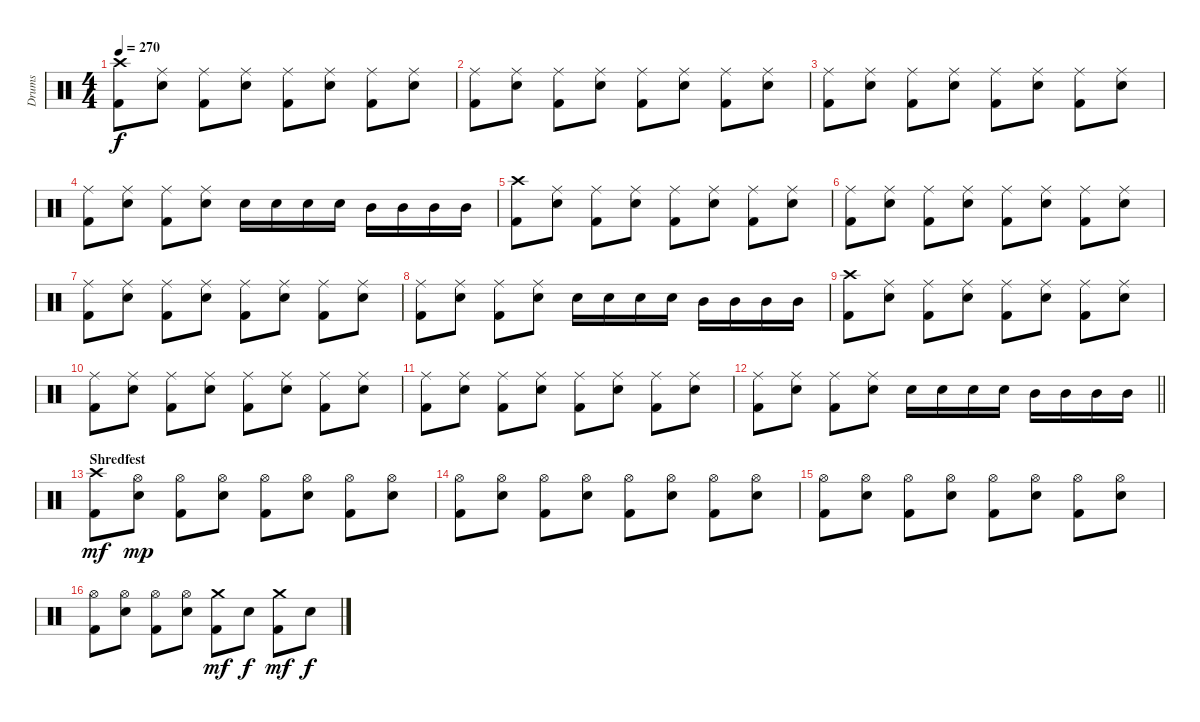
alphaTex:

\track ("Drums" "Drums") {instrument percussion}
\staff {score}
\articulation defaults
\ts (4 4)
\tempo 270
\clef neutral
\ks c
("Crash high (hit)" "Kick (hit) 2").8{dy f} ("Ride (middle)" "Snare (hit) 2").8 ("Ride (middle)" "Kick (hit) 2").8 ("Ride (middle)" "Snare (hit) 2").8 ("Ride (middle)" "Kick (hit) 2").8 ("Ride (middle)" "Snare (hit) 2").8 ("Ride (middle)" "Kick (hit) 2").8 ("Ride (middle)" "Snare (hit) 2").8 |
("Ride (middle)" "Kick (hit) 2").8 ("Ride (middle)" "Snare (hit) 2").8 ("Ride (middle)" "Kick (hit) 2").8 ("Ride (middle)" "Snare (hit) 2").8 ("Ride (middle)" "Kick (hit) 2").8 ("Ride (middle)" "Snare (hit) 2").8 ("Ride (middle)" "Kick (hit) 2").8 ("Ride (middle)" "Snare (hit) 2").8 |
("Ride (middle)" "Kick (hit) 2").8 ("Ride (middle)" "Snare (hit) 2").8 ("Ride (middle)" "Kick (hit) 2").8 ("Ride (middle)" "Snare (hit) 2").8 ("Ride (middle)" "Kick (hit) 2").8 ("Ride (middle)" "Snare (hit) 2").8 ("Ride (middle)" "Kick (hit) 2").8 ("Ride (middle)" "Snare (hit) 2").8 |
("Ride (middle)" "Kick (hit) 2").8 ("Ride (middle)" "Snare (hit) 2").8 ("Ride (middle)" "Kick (hit) 2").8 ("Ride (middle)" "Snare (hit) 2").8 "Snare (hit) 2".16 "Snare (hit) 2".16 "Snare (hit) 2".16 "Snare (hit) 2".16 "Mid Tom (hit)".16 "Mid Tom (hit)".16 "Mid Tom (hit)".16 "Mid Tom (hit)".16 |
("Crash high (hit)" "Kick (hit) 2").8 ("Ride (middle)" "Snare (hit) 2").8 ("Ride (middle)" "Kick (hit) 2").8 ("Ride (middle)" "Snare (hit) 2").8 ("Ride (middle)" "Kick (hit) 2").8 ("Ride (middle)" "Snare (hit) 2").8 ("Ride (middle)" "Kick (hit) 2").8 ("Ride (middle)" "Snare (hit) 2").8 |
("Ride (middle)" "Kick (hit) 2").8 ("Ride (middle)" "Snare (hit) 2").8 ("Ride (middle)" "Kick (hit) 2").8 ("Ride (middle)" "Snare (hit) 2").8 ("Ride (middle)" "Kick (hit) 2").8 ("Ride (middle)" "Snare (hit) 2").8 ("Ride (middle)" "Kick (hit) 2").8 ("Ride (middle)" "Snare (hit) 2").8 |
("Ride (middle)" "Kick (hit) 2").8 ("Ride (middle)" "Snare (hit) 2").8 ("Ride (middle)" "Kick (hit) 2").8 ("Ride (middle)" "Snare (hit) 2").8 ("Ride (middle)" "Kick (hit) 2").8 ("Ride (middle)" "Snare (hit) 2").8 ("Ride (middle)" "Kick (hit) 2").8 ("Ride (middle)" "Snare (hit) 2").8 |
("Ride (middle)" "Kick (hit) 2").8 ("Ride (middle)" "Snare (hit) 2").8 ("Ride (middle)" "Kick (hit) 2").8 ("Ride (middle)" "Snare (hit) 2").8 "Snare (hit) 2".16 "Snare (hit) 2".16 "Snare (hit) 2".16 "Snare (hit) 2".16 "Mid Tom (hit)".16 "Mid Tom (hit)".16 "Mid Tom (hit)".16 "Mid Tom (hit)".16 |
("Crash high (hit)" "Kick (hit) 2").8 ("Ride (middle)" "Snare (hit) 2").8 ("Ride (middle)" "Kick (hit) 2").8 ("Ride (middle)" "Snare (hit) 2").8 ("Ride (middle)" "Kick (hit) 2").8 ("Ride (middle)" "Snare (hit) 2").8 ("Ride (middle)" "Kick (hit) 2").8 ("Ride (middle)" "Snare (hit) 2").8 |
("Ride (middle)" "Kick (hit) 2").8 ("Ride (middle)" "Snare (hit) 2").8 ("Ride (middle)" "Kick (hit) 2").8 ("Ride (middle)" "Snare (hit) 2").8 ("Ride (middle)" "Kick (hit) 2").8 ("Ride (middle)" "Snare (hit) 2").8 ("Ride (middle)" "Kick (hit) 2").8 ("Ride (middle)" "Snare (hit) 2").8 |
("Ride (middle)" "Kick (hit) 2").8 ("Ride (middle)" "Snare (hit) 2").8 ("Ride (middle)" "Kick (hit) 2").8 ("Ride (middle)" "Snare (hit) 2").8 ("Ride (middle)" "Kick (hit) 2").8 ("Ride (middle)" "Snare (hit) 2").8 ("Ride (middle)" "Kick (hit) 2").8 ("Ride (middle)" "Snare (hit) 2").8 |
\barLineRight lightlight
("Ride (middle)" "Kick (hit) 2").8 ("Ride (middle)" "Snare (hit) 2").8 ("Ride (middle)" "Kick (hit) 2").8 ("Ride (middle)" "Snare (hit) 2").8 "Snare (hit) 2".16 "Snare (hit) 2".16 "Snare (hit) 2".16 "Snare (hit) 2".16 "Mid Tom (hit)".16 "Mid Tom (hit)".16 "Mid Tom (hit)".16 "Mid Tom (hit)".16 |
\section ("" "Shredfest")
("Crash high (hit)" "Kick (hit) 2").8{dy mf} ("Hi-Hat (open)" "Snare (hit) 2").8{dy mp} ("Hi-Hat (open)" "Kick (hit) 2").8 ("Hi-Hat (open)" "Snare (hit) 2").8 ("Hi-Hat (open)" "Kick (hit) 2").8 ("Hi-Hat (open)" "Snare (hit) 2").8 ("Hi-Hat (open)" "Kick (hit) 2").8 ("Hi-Hat (open)" "Snare (hit) 2").8 |
("Hi-Hat (open)" "Kick (hit) 2").8 ("Hi-Hat (open)" "Snare (hit) 2").8 ("Hi-Hat (open)" "Kick (hit) 2").8 ("Hi-Hat (open)" "Snare (hit) 2").8 ("Hi-Hat (open)" "Kick (hit) 2").8 ("Hi-Hat (open)" "Snare (hit) 2").8 ("Hi-Hat (open)" "Kick (hit) 2").8 ("Hi-Hat (open)" "Snare (hit) 2").8 |
("Hi-Hat (open)" "Kick (hit) 2").8 ("Hi-Hat (open)" "Snare (hit) 2").8 ("Hi-Hat (open)" "Kick (hit) 2").8 ("Hi-Hat (open)" "Snare (hit) 2").8 ("Hi-Hat (open)" "Kick (hit) 2").8 ("Hi-Hat (open)" "Snare (hit) 2").8 ("Hi-Hat (open)" "Kick (hit) 2").8 ("Hi-Hat (open)" "Snare (hit) 2").8 |
("Hi-Hat (open)" "Kick (hit) 2").8 ("Hi-Hat (open)" "Snare (hit) 2").8 ("Hi-Hat (open)" "Kick (hit) 2").8 ("Hi-Hat (open)" "Snare (hit) 2").8 ("Crash medium (hit)" "Kick (hit) 2").8{dy mf} "Snare (hit) 2".8{dy f} ("Crash medium (hit)" "Kick (hit) 2").8{dy mf} "Snare (hit) 2".8{dy f}
